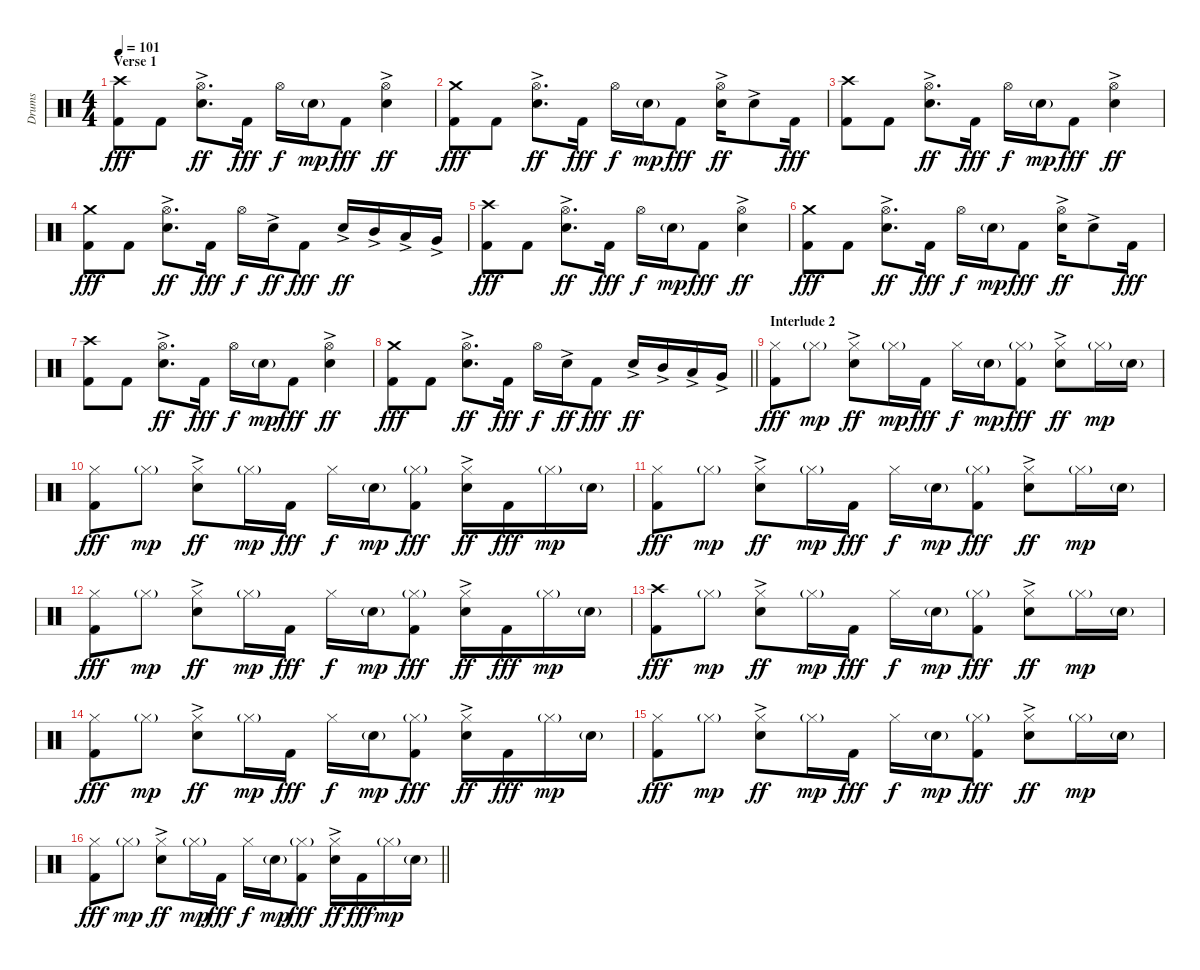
\track ("Drums" "Drums") {instrument percussion}
\staff {score}
\articulation defaults
\ts (4 4)
\section ("" "Verse 1")
\tempo 101
\clef neutral
\ks c
("Crash high (hit)" "Kick (hit) 2").8{dy fff} "Kick (hit) 2".8 ("Hi-Hat (open)" "Electric Snare (hit)"{ac}).8{d dy ff} "Kick (hit) 2".16{dy fff} "Hi-Hat (open)".16{dy f} "Snare (hit) 2"{g}.16{dy mp} "Kick (hit) 2".8{dy fff} ("Hi-Hat (open)" "Electric Snare (hit)"{ac}).4{dy ff} |
("Crash medium (hit)" "Kick (hit) 2").8{dy fff} "Kick (hit) 2".8 ("Hi-Hat (open)" "Electric Snare (hit)"{ac}).8{d dy ff} "Kick (hit) 2".16{dy fff} "Hi-Hat (open)".16{dy f} "Snare (hit) 2"{g}.16{dy mp} "Kick (hit) 2".8{dy fff} ("Hi-Hat (open)" "Electric Snare (hit)"{ac}).16{dy ff} "Electric Snare (hit)"{ac}.8 "Kick (hit) 2".16{dy fff} |
("Crash high (hit)" "Kick (hit) 2").8 "Kick (hit) 2".8 ("Hi-Hat (open)" "Electric Snare (hit)"{ac}).8{d dy ff} "Kick (hit) 2".16{dy fff} "Hi-Hat (open)".16{dy f} "Snare (hit) 2"{g}.16{dy mp} "Kick (hit) 2".8{dy fff} ("Hi-Hat (open)" "Electric Snare (hit)"{ac}).4{dy ff} |
("Crash medium (hit)" "Kick (hit) 2").8{dy fff} "Kick (hit) 2".8 ("Hi-Hat (open)" "Electric Snare (hit)"{ac}).8{d dy ff} "Kick (hit) 2".16{dy fff} "Hi-Hat (open)".16{dy f} "Electric Snare (hit)"{ac}.16{dy ff} "Kick (hit) 2".8{dy fff} "Electric Snare (hit)"{ac}.16{dy ff} "Mid Tom (hit)"{ac}.16 "Low Tom (hit)"{ac}.16 "Very Low Tom (hit)"{ac}.16 |
("Crash high (hit)" "Kick (hit) 2").8{dy fff} "Kick (hit) 2".8 ("Hi-Hat (open)" "Electric Snare (hit)"{ac}).8{d dy ff} "Kick (hit) 2".16{dy fff} "Hi-Hat (open)".16{dy f} "Snare (hit) 2"{g}.16{dy mp} "Kick (hit) 2".8{dy fff} ("Hi-Hat (open)" "Electric Snare (hit)"{ac}).4{dy ff} |
("Crash medium (hit)" "Kick (hit) 2").8{dy fff} "Kick (hit) 2".8 ("Hi-Hat (open)" "Electric Snare (hit)"{ac}).8{d dy ff} "Kick (hit) 2".16{dy fff} "Hi-Hat (open)".16{dy f} "Snare (hit) 2"{g}.16{dy mp} "Kick (hit) 2".8{dy fff} ("Hi-Hat (open)" "Electric Snare (hit)"{ac}).16{dy ff} "Electric Snare (hit)"{ac}.8 "Kick (hit) 2".16{dy fff} |
("Crash high (hit)" "Kick (hit) 2").8 "Kick (hit) 2".8 ("Hi-Hat (open)" "Electric Snare (hit)"{ac}).8{d dy ff} "Kick (hit) 2".16{dy fff} "Hi-Hat (open)".16{dy f} "Snare (hit) 2"{g}.16{dy mp} "Kick (hit) 2".8{dy fff} ("Hi-Hat (open)" "Electric Snare (hit)"{ac}).4{dy ff} |
\barLineRight lightlight
("Crash medium (hit)" "Kick (hit) 2").8{dy fff} "Kick (hit) 2".8 ("Hi-Hat (open)" "Electric Snare (hit)"{ac}).8{d dy ff} "Kick (hit) 2".16{dy fff} "Hi-Hat (open)".16{dy f} "Electric Snare (hit)"{ac}.16{dy ff} "Kick (hit) 2".8{dy fff} "Electric Snare (hit)"{ac}.16{dy ff} "Mid Tom (hit)"{ac}.16 "Low Tom (hit)"{ac}.16 "Very Low Tom (hit)"{ac}.16 |
\section ("" "Interlude 2")
("Hi-Hat (closed)" "Kick (hit) 2").8{dy fff} "Hi-Hat (closed)"{g}.8{dy mp} ("Hi-Hat (closed)" "Electric Snare (hit)"{ac}).8{dy ff} "Hi-Hat (closed)"{g}.16{dy mp} "Kick (hit) 2".16{dy fff} "Hi-Hat (closed)".16{dy f} "Snare (hit) 2"{g}.16{dy mp} ("Hi-Hat (closed)"{g} "Kick (hit) 2").8{dy fff} ("Hi-Hat (closed)" "Electric Snare (hit)"{ac}).8{dy ff} "Hi-Hat (closed)"{g}.16{dy mp} "Snare (hit) 2"{g}.16 |
("Hi-Hat (closed)" "Kick (hit) 2").8{dy fff} "Hi-Hat (closed)"{g}.8{dy mp} ("Hi-Hat (closed)" "Electric Snare (hit)"{ac}).8{dy ff} "Hi-Hat (closed)"{g}.16{dy mp} "Kick (hit) 2".16{dy fff} "Hi-Hat (closed)".16{dy f} "Snare (hit) 2"{g}.16{dy mp} ("Hi-Hat (closed)"{g} "Kick (hit) 2").8{dy fff} ("Hi-Hat (closed)" "Electric Snare (hit)"{ac}).16{dy ff} "Kick (hit) 2".16{dy fff} "Hi-Hat (closed)"{g}.16{dy mp} "Snare (hit) 2"{g}.16 |
("Hi-Hat (closed)" "Kick (hit) 2").8{dy fff} "Hi-Hat (closed)"{g}.8{dy mp} ("Hi-Hat (closed)" "Electric Snare (hit)"{ac}).8{dy ff} "Hi-Hat (closed)"{g}.16{dy mp} "Kick (hit) 2".16{dy fff} "Hi-Hat (closed)".16{dy f} "Snare (hit) 2"{g}.16{dy mp} ("Hi-Hat (closed)"{g} "Kick (hit) 2").8{dy fff} ("Hi-Hat (closed)" "Electric Snare (hit)"{ac}).8{dy ff} "Hi-Hat (closed)"{g}.16{dy mp} "Snare (hit) 2"{g}.16 |
("Hi-Hat (closed)" "Kick (hit) 2").8{dy fff} "Hi-Hat (closed)"{g}.8{dy mp} ("Hi-Hat (closed)" "Electric Snare (hit)"{ac}).8{dy ff} "Hi-Hat (closed)"{g}.16{dy mp} "Kick (hit) 2".16{dy fff} "Hi-Hat (closed)".16{dy f} "Snare (hit) 2"{g}.16{dy mp} ("Hi-Hat (closed)"{g} "Kick (hit) 2").8{dy fff} ("Hi-Hat (closed)" "Electric Snare (hit)"{ac}).16{dy ff} "Kick (hit) 2".16{dy fff} "Hi-Hat (closed)"{g}.16{dy mp} "Snare (hit) 2"{g}.16 |
("Crash high (hit)" "Kick (hit) 2").8{dy fff} "Hi-Hat (closed)"{g}.8{dy mp} ("Hi-Hat (closed)" "Electric Snare (hit)"{ac}).8{dy ff} "Hi-Hat (closed)"{g}.16{dy mp} "Kick (hit) 2".16{dy fff} "Hi-Hat (closed)".16{dy f} "Snare (hit) 2"{g}.16{dy mp} ("Hi-Hat (closed)"{g} "Kick (hit) 2").8{dy fff} ("Hi-Hat (closed)" "Electric Snare (hit)"{ac}).8{dy ff} "Hi-Hat (closed)"{g}.16{dy mp} "Snare (hit) 2"{g}.16 |
("Hi-Hat (closed)" "Kick (hit) 2").8{dy fff} "Hi-Hat (closed)"{g}.8{dy mp} ("Hi-Hat (closed)" "Electric Snare (hit)"{ac}).8{dy ff} "Hi-Hat (closed)"{g}.16{dy mp} "Kick (hit) 2".16{dy fff} "Hi-Hat (closed)".16{dy f} "Snare (hit) 2"{g}.16{dy mp} ("Hi-Hat (closed)"{g} "Kick (hit) 2").8{dy fff} ("Hi-Hat (closed)" "Electric Snare (hit)"{ac}).16{dy ff} "Kick (hit) 2".16{dy fff} "Hi-Hat (closed)"{g}.16{dy mp} "Snare (hit) 2"{g}.16 |
("Hi-Hat (closed)" "Kick (hit) 2").8{dy fff} "Hi-Hat (closed)"{g}.8{dy mp} ("Hi-Hat (closed)" "Electric Snare (hit)"{ac}).8{dy ff} "Hi-Hat (closed)"{g}.16{dy mp} "Kick (hit) 2".16{dy fff} "Hi-Hat (closed)".16{dy f} "Snare (hit) 2"{g}.16{dy mp} ("Hi-Hat (closed)"{g} "Kick (hit) 2").8{dy fff} ("Hi-Hat (closed)" "Electric Snare (hit)"{ac}).8{dy ff} "Hi-Hat (closed)"{g}.16{dy mp} "Snare (hit) 2"{g}.16 |
\barLineRight lightlight
("Hi-Hat (closed)" "Kick (hit) 2").8{dy fff} "Hi-Hat (closed)"{g}.8{dy mp} ("Hi-Hat (closed)" "Electric Snare (hit)"{ac}).8{dy ff} "Hi-Hat (closed)"{g}.16{dy mp} "Kick (hit) 2".16{dy fff} "Hi-Hat (closed)".16{dy f} "Snare (hit) 2"{g}.16{dy mp} ("Hi-Hat (closed)"{g} "Kick (hit) 2").8{dy fff} ("Hi-Hat (closed)" "Electric Snare (hit)"{ac}).16{dy ff} "Kick (hit) 2".16{dy fff} "Hi-Hat (closed)"{g}.16{dy mp} "Snare (hit) 2"{g}.16
